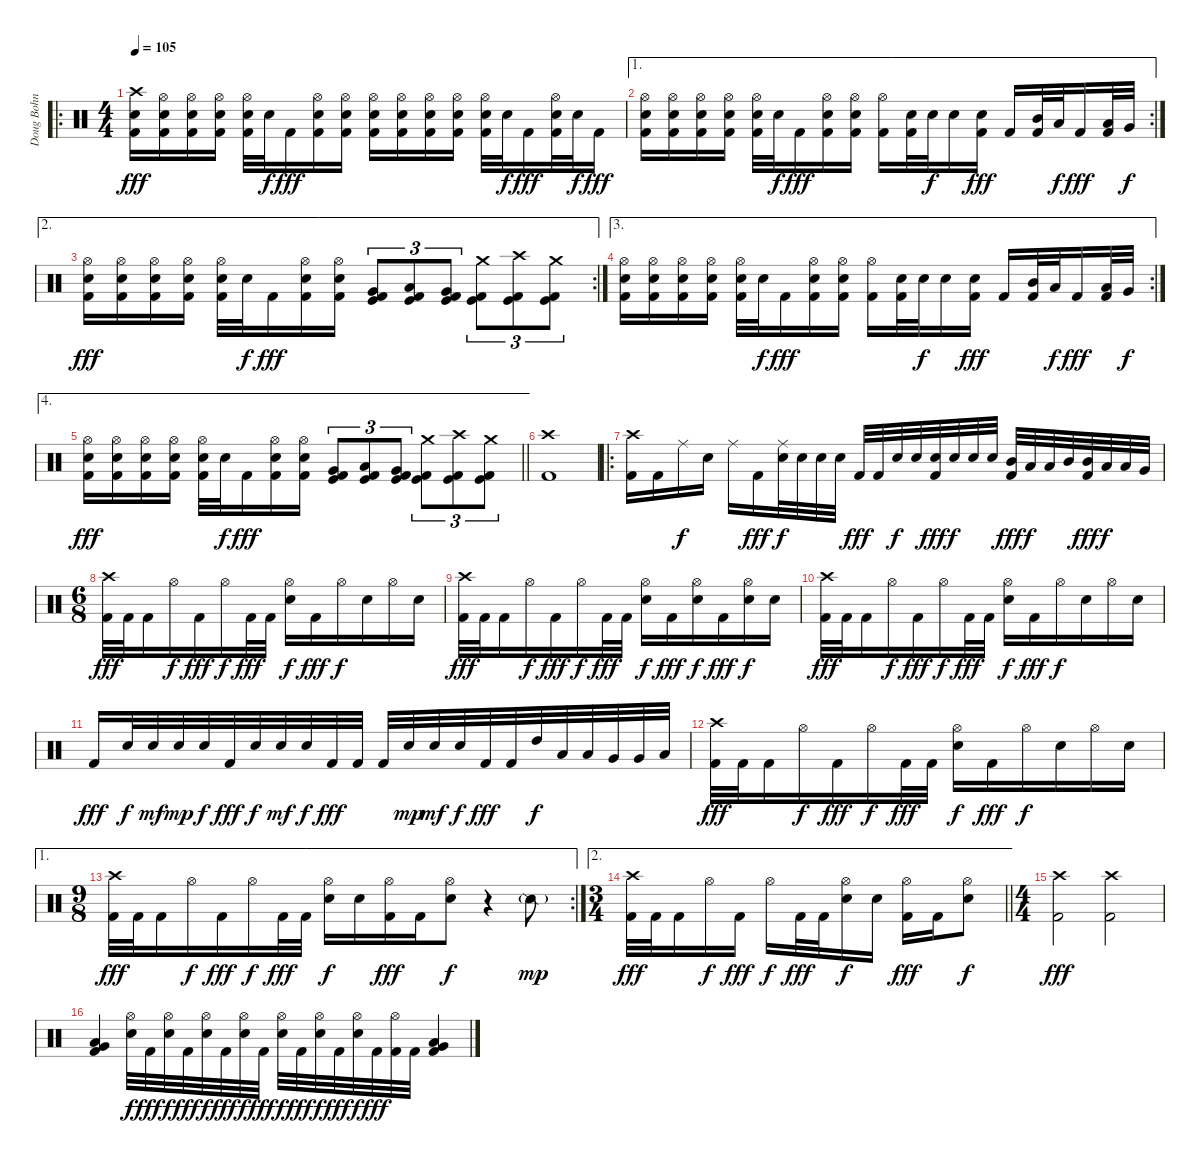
\track ("Doug Bohn" "Doug Bohn") {instrument percussion}
\staff {score}
\articulation defaults
\ro
\ts (4 4)
\tempo 105
\clef neutral
\ks c
("Crash high (hit)" "Snare (hit) 2" "Kick (hit) 2").16{dy fff} ("Hi-Hat (open)" "Snare (hit) 2" "Kick (hit) 2").16 ("Hi-Hat (open)" "Snare (hit) 2" "Kick (hit) 2").16 ("Hi-Hat (open)" "Snare (hit) 2" "Kick (hit) 2").16 ("Hi-Hat (open)" "Snare (hit) 2" "Kick (hit) 2").32 "Snare (hit) 2".32{dy f} "Kick (hit) 2".16{dy fff} ("Hi-Hat (open)" "Snare (hit) 2" "Kick (hit) 2").16 ("Hi-Hat (open)" "Snare (hit) 2" "Kick (hit) 2").16 ("Hi-Hat (open)" "Snare (hit) 2" "Kick (hit) 2").16 ("Hi-Hat (open)" "Snare (hit) 2" "Kick (hit) 2").16 ("Hi-Hat (open)" "Snare (hit) 2" "Kick (hit) 2").16 ("Hi-Hat (open)" "Snare (hit) 2" "Kick (hit) 2").16 ("Hi-Hat (open)" "Snare (hit) 2" "Kick (hit) 2").32 "Snare (hit) 2".32{dy f} "Kick (hit) 2".16{dy fff} ("Hi-Hat (open)" "Snare (hit) 2" "Kick (hit) 2").32 "Snare (hit) 2".32{dy f} "Kick (hit) 2".16{dy fff} |
\ae 1
\rc 2
("Hi-Hat (open)" "Snare (hit) 2" "Kick (hit) 2").16 ("Hi-Hat (open)" "Snare (hit) 2" "Kick (hit) 2").16 ("Hi-Hat (open)" "Snare (hit) 2" "Kick (hit) 2").16 ("Hi-Hat (open)" "Snare (hit) 2" "Kick (hit) 2").16 ("Hi-Hat (open)" "Snare (hit) 2" "Kick (hit) 2").32 "Snare (hit) 2".32{dy f} "Kick (hit) 2".16{dy fff} ("Hi-Hat (open)" "Snare (hit) 2" "Kick (hit) 2").16 ("Hi-Hat (open)" "Snare (hit) 2" "Kick (hit) 2").16 ("Hi-Hat (open)" "Kick (hit) 2").16 ("Snare (hit) 2" "Kick (hit) 2").32 "Snare (hit) 2".32{dy f} "Snare (hit) 2".16 ("Snare (hit) 2" "Kick (hit) 2").16{dy fff} "Kick (hit) 2".16 ("Mid Tom (hit)" "Kick (hit) 2").32 "Low Tom (hit)".32{dy f} "Kick (hit) 2".16{dy fff} ("Low Tom (hit)" "Kick (hit) 2").32 "Very Low Tom (hit)".32{dy f} |
\ae 2
\rc 2
("Hi-Hat (open)" "Snare (hit) 2" "Kick (hit) 2").16{dy fff} ("Hi-Hat (open)" "Snare (hit) 2" "Kick (hit) 2").16 ("Hi-Hat (open)" "Snare (hit) 2" "Kick (hit) 2").16 ("Hi-Hat (open)" "Snare (hit) 2" "Kick (hit) 2").16 ("Hi-Hat (open)" "Snare (hit) 2" "Kick (hit) 2").32 "Snare (hit) 2".32{dy f} "Kick (hit) 2".16{dy fff} ("Hi-Hat (open)" "Snare (hit) 2" "Kick (hit) 2").16 ("Hi-Hat (open)" "Snare (hit) 2" "Kick (hit) 2").16 ("Very Low Tom (hit)" "Kick (hit)" "Kick (hit) 2").8{tu (3 2)} ("Low Floor Tom (hit)" "Kick (hit)" "Kick (hit) 2").8{tu (3 2)} ("Very Low Tom (hit)" "Kick (hit)" "Kick (hit) 2").8{tu (3 2)} ("Crash medium (hit)" "Kick (hit)" "Kick (hit) 2").8{tu (3 2)} ("Crash high (hit)" "Kick (hit)" "Kick (hit) 2").8{tu (3 2)} ("Crash medium (hit)" "Kick (hit)" "Kick (hit) 2").8{tu (3 2)} |
\ae 3
\rc 2
("Hi-Hat (open)" "Snare (hit) 2" "Kick (hit) 2").16 ("Hi-Hat (open)" "Snare (hit) 2" "Kick (hit) 2").16 ("Hi-Hat (open)" "Snare (hit) 2" "Kick (hit) 2").16 ("Hi-Hat (open)" "Snare (hit) 2" "Kick (hit) 2").16 ("Hi-Hat (open)" "Snare (hit) 2" "Kick (hit) 2").32 "Snare (hit) 2".32{dy f} "Kick (hit) 2".16{dy fff} ("Hi-Hat (open)" "Snare (hit) 2" "Kick (hit) 2").16 ("Hi-Hat (open)" "Snare (hit) 2" "Kick (hit) 2").16 ("Hi-Hat (open)" "Kick (hit) 2").16 ("Snare (hit) 2" "Kick (hit) 2").32 "Snare (hit) 2".32{dy f} "Snare (hit) 2".16 ("Snare (hit) 2" "Kick (hit) 2").16{dy fff} "Kick (hit) 2".16 ("Mid Tom (hit)" "Kick (hit) 2").32 "Low Tom (hit)".32{dy f} "Kick (hit) 2".16{dy fff} ("Low Tom (hit)" "Kick (hit) 2").32 "Very Low Tom (hit)".32{dy f} |
\ae 4
\barLineRight lightlight
("Hi-Hat (open)" "Snare (hit) 2" "Kick (hit) 2").16{dy fff} ("Hi-Hat (open)" "Snare (hit) 2" "Kick (hit) 2").16 ("Hi-Hat (open)" "Snare (hit) 2" "Kick (hit) 2").16 ("Hi-Hat (open)" "Snare (hit) 2" "Kick (hit) 2").16 ("Hi-Hat (open)" "Snare (hit) 2" "Kick (hit) 2").32 "Snare (hit) 2".32{dy f} "Kick (hit) 2".16{dy fff} ("Hi-Hat (open)" "Snare (hit) 2" "Kick (hit) 2").16 ("Hi-Hat (open)" "Snare (hit) 2" "Kick (hit) 2").16 ("Very Low Tom (hit)" "Kick (hit)" "Kick (hit) 2").8{tu (3 2)} ("Low Floor Tom (hit)" "Kick (hit)" "Kick (hit) 2").8{tu (3 2)} ("Very Low Tom (hit)" "Kick (hit)" "Kick (hit) 2").8{tu (3 2)} ("Crash medium (hit)" "Kick (hit)" "Kick (hit) 2").8{tu (3 2)} ("Crash high (hit)" "Kick (hit)" "Kick (hit) 2").8{tu (3 2)} ("Crash medium (hit)" "Kick (hit)" "Kick (hit) 2").8{tu (3 2)} |
("Crash high (hit)" "Kick (hit) 2").1 |
\ro
("Crash high (hit)" "Kick (hit) 2").16 "Kick (hit) 2".16 "Ride (middle)".16{dy f} "Snare (hit) 2".16 "Ride (middle)".16 "Kick (hit) 2".16{dy fff} ("Ride (middle)" "Snare (hit) 2").32{dy f} "Snare (hit) 2".32 "Snare (hit) 2".32 "Snare (hit) 2".32 "Kick (hit) 2".32{dy fff} "Kick (hit) 2".32 "Snare (hit) 2".32{dy f} "Snare (hit) 2".32 ("Snare (hit) 2" "Kick (hit) 2").32{dy fff} "Snare (hit) 2".32{dy f} "Snare (hit) 2".32 "Snare (hit) 2".32 ("Mid Tom (hit)" "Kick (hit) 2").32{dy fff} "Low Tom (hit)".32{dy f} "Low Tom (hit)".32 "Mid Tom (hit)".32 ("Mid Tom (hit)" "Kick (hit) 2").32{dy fff} "Low Tom (hit)".32{dy f} "Low Tom (hit)".32 "Very Low Tom (hit)".32 |
\ts (6 8)
("Crash high (hit)" "Kick (hit) 2").32{dy fff} "Kick (hit) 2".32 "Kick (hit) 2".16 "Hi-Hat (open)".16{dy f} "Kick (hit) 2".16{dy fff} "Hi-Hat (open)".16{dy f} "Kick (hit) 2".32{dy fff} "Kick (hit) 2".32 ("Hi-Hat (open)" "Snare (hit) 2").16{dy f} "Kick (hit) 2".16{dy fff} "Hi-Hat (open)".16{dy f} "Snare (hit) 2".16 "Hi-Hat (open)".16 "Snare (hit) 2".16 |
("Crash high (hit)" "Kick (hit) 2").32{dy fff} "Kick (hit) 2".32 "Kick (hit) 2".16 "Hi-Hat (open)".16{dy f} "Kick (hit) 2".16{dy fff} "Hi-Hat (open)".16{dy f} "Kick (hit) 2".32{dy fff} "Kick (hit) 2".32 ("Hi-Hat (open)" "Snare (hit) 2").16{dy f} "Kick (hit) 2".16{dy fff} ("Hi-Hat (open)" "Snare (hit) 2").16{dy f} "Kick (hit) 2".16{dy fff} ("Hi-Hat (open)" "Snare (hit) 2").16{dy f} "Snare (hit) 2".16 |
("Crash high (hit)" "Kick (hit) 2").32{dy fff} "Kick (hit) 2".32 "Kick (hit) 2".16 "Hi-Hat (open)".16{dy f} "Kick (hit) 2".16{dy fff} "Hi-Hat (open)".16{dy f} "Kick (hit) 2".32{dy fff} "Kick (hit) 2".32 ("Hi-Hat (open)" "Snare (hit) 2").16{dy f} "Kick (hit) 2".16{dy fff} "Hi-Hat (open)".16{dy f} "Snare (hit) 2".16 "Hi-Hat (open)".16 "Snare (hit) 2".16 |
"Kick (hit) 2".16{dy fff} "Snare (hit) 2".32{dy f} "Snare (hit) 2".32{dy mf} "Snare (hit) 2".32{dy mp} "Snare (hit) 2".32{dy f} "Kick (hit) 2".32{dy fff} "Snare (hit) 2".32{dy f} "Snare (hit) 2".32{dy mf} "Snare (hit) 2".32{dy f} "Kick (hit) 2".32{dy fff} "Kick (hit) 2".32 "Kick (hit) 2".32 "Snare (hit) 2".32{dy mp} "Snare (hit) 2".32{dy mf} "Snare (hit) 2".32{dy f} "Kick (hit) 2".32{dy fff} "Kick (hit) 2".32 "High Tom (hit)".32{dy f} "Low Tom (hit)".32 "Low Tom (hit)".32 "Very Low Tom (hit)".32 "Very Low Tom (hit)".32 "Low Floor Tom (hit)".32 |
("Crash high (hit)" "Kick (hit) 2").32{dy fff} "Kick (hit) 2".32 "Kick (hit) 2".16 "Hi-Hat (open)".16{dy f} "Kick (hit) 2".16{dy fff} "Hi-Hat (open)".16{dy f} "Kick (hit) 2".32{dy fff} "Kick (hit) 2".32 ("Hi-Hat (open)" "Snare (hit) 2").16{dy f} "Kick (hit) 2".16{dy fff} "Hi-Hat (open)".16{dy f} "Snare (hit) 2".16 "Hi-Hat (open)".16 "Snare (hit) 2".16 |
\ae 1
\rc 2
\ts (9 8)
("Crash high (hit)" "Kick (hit) 2").32{dy fff} "Kick (hit) 2".32 "Kick (hit) 2".16 "Hi-Hat (open)".16{dy f} "Kick (hit) 2".16{dy fff} "Hi-Hat (open)".16{dy f} "Kick (hit) 2".32{dy fff} "Kick (hit) 2".32 ("Hi-Hat (open)" "Snare (hit) 2").16{dy f} "Snare (hit) 2".16 ("Hi-Hat (open)" "Kick (hit) 2").16{dy fff} "Kick (hit) 2".16 ("Hi-Hat (open)" "Snare (hit) 2").8{dy f} r.4 "Snare (side stick) 2"{g}.8{dy mp} |
\ae 2
\ts (3 4)
\barLineRight lightlight
("Crash high (hit)" "Kick (hit) 2").32{dy fff} "Kick (hit) 2".32 "Kick (hit) 2".16 "Hi-Hat (open)".16{dy f} "Kick (hit) 2".16{dy fff} "Hi-Hat (open)".16{dy f} "Kick (hit) 2".32{dy fff} "Kick (hit) 2".32 ("Hi-Hat (open)" "Snare (hit) 2").16{dy f} "Snare (hit) 2".16 ("Hi-Hat (open)" "Kick (hit) 2").16{dy fff} "Kick (hit) 2".16 ("Hi-Hat (open)" "Snare (hit) 2").8{dy f} |
\ts (4 4)
("Crash high (hit)" "Kick (hit) 2").2{dy fff} ("Crash high (hit)" "Kick (hit) 2").2 |
("Low Tom (hit)" "Very Low Tom (hit)" "Kick (hit) 2").4 ("Hi-Hat (open)" "Snare (hit) 2").32{dy f} "Kick (hit) 2".32{dy fff} ("Hi-Hat (open)" "Snare (hit) 2").32{dy f} "Kick (hit) 2".32{dy fff} ("Hi-Hat (open)" "Snare (hit) 2").32{dy f} "Kick (hit) 2".32{dy fff} ("Hi-Hat (open)" "Snare (hit) 2").32{dy f} "Kick (hit) 2".32{dy fff} ("Hi-Hat (open)" "Snare (hit) 2").32{dy f} "Kick (hit) 2".32{dy fff} ("Hi-Hat (open)" "Snare (hit) 2").32{dy f} "Kick (hit) 2".32{dy fff} ("Hi-Hat (open)" "Snare (hit) 2").32{dy f} "Kick (hit) 2".32{dy fff} ("Hi-Hat (open)" "Kick (hit) 2").32 "Kick (hit) 2".32 ("Low Tom (hit)" "Very Low Tom (hit)" "Kick (hit) 2").4
